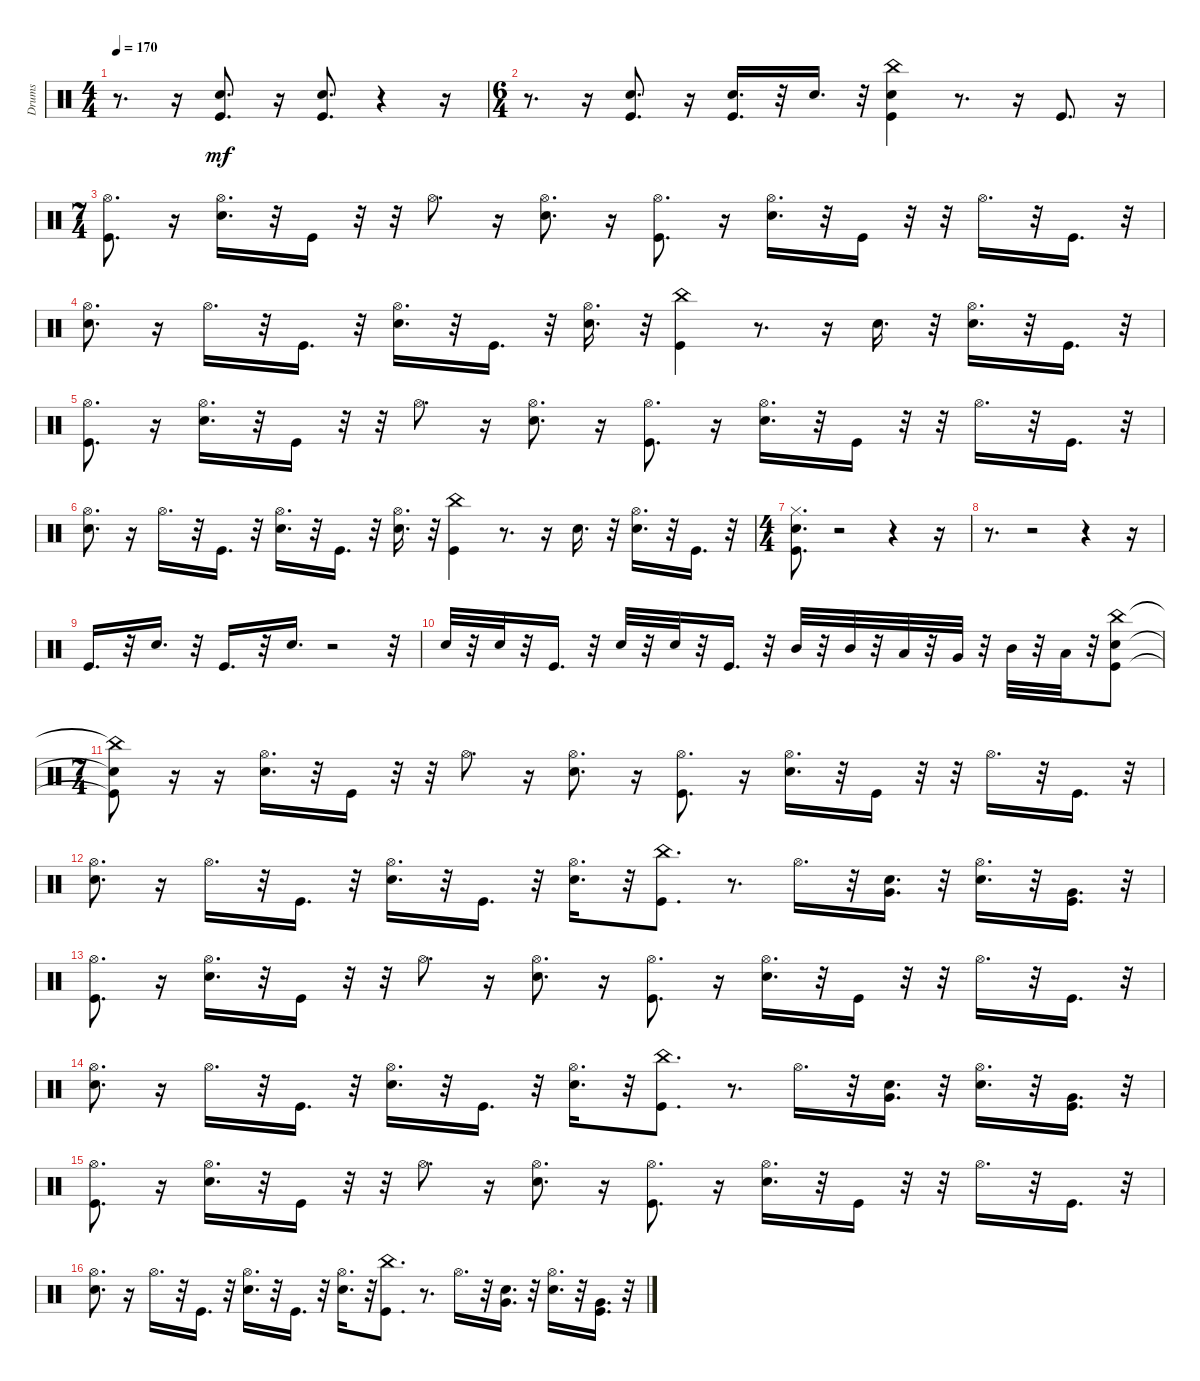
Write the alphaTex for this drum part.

\track ("Drums" "Drums") {instrument percussion}
\staff {score}
\articulation defaults
\ts (4 4)
\tempo 170
\clef neutral
\ks c
r.8{d dy mf} r.16 ("Kick (hit)" "Snare (hit) 2").8{d} r.16 ("Kick (hit)" "Snare (hit) 2").8{d} r.4 r.16 |
\ts (6 4)
r.8{d} r.16 ("Kick (hit)" "Snare (hit) 2").8{d} r.16 ("Kick (hit)" "Snare (hit) 2").16{d} r.32 "Snare (hit) 2".16{d} r.32 ("Kick (hit)" "Snare (hit) 2" "China (hit)").4 r.8{d} r.16 "Kick (hit)".8{d} r.16 |
\ts (7 4)
("Kick (hit)" "Hi-Hat (open)").8{d} r.16 ("Snare (hit) 2" "Hi-Hat (open)").16{d} r.32 "Kick (hit)".16 r.32 r.32 "Hi-Hat (open)".8{d} r.16 ("Snare (hit) 2" "Hi-Hat (open)").8{d} r.16 ("Kick (hit)" "Hi-Hat (open)").8{d} r.16 ("Snare (hit) 2" "Hi-Hat (open)").16{d} r.32 "Kick (hit)".16 r.32 r.32 "Hi-Hat (open)".16{d} r.32 "Kick (hit)".16{d} r.32 |
("Snare (hit) 2" "Hi-Hat (open)").8{d} r.16 "Hi-Hat (open)".16{d} r.32 "Kick (hit)".16{d} r.32 ("Snare (hit) 2" "Hi-Hat (open)").16{d} r.32 "Kick (hit)".16{d} r.32 ("Snare (hit) 2" "Hi-Hat (open)").16{d} r.32 ("Kick (hit)" "China (hit)").4 r.8{d} r.16 "Snare (hit) 2".16{d} r.32 ("Snare (hit) 2" "Hi-Hat (open)").16{d} r.32 "Kick (hit)".16{d} r.32 |
("Kick (hit)" "Hi-Hat (open)").8{d} r.16 ("Snare (hit) 2" "Hi-Hat (open)").16{d} r.32 "Kick (hit)".16 r.32 r.32 "Hi-Hat (open)".8{d} r.16 ("Snare (hit) 2" "Hi-Hat (open)").8{d} r.16 ("Kick (hit)" "Hi-Hat (open)").8{d} r.16 ("Snare (hit) 2" "Hi-Hat (open)").16{d} r.32 "Kick (hit)".16 r.32 r.32 "Hi-Hat (open)".16{d} r.32 "Kick (hit)".16{d} r.32 |
("Snare (hit) 2" "Hi-Hat (open)").8{d} r.16 "Hi-Hat (open)".16{d} r.32 "Kick (hit)".16{d} r.32 ("Snare (hit) 2" "Hi-Hat (open)").16{d} r.32 "Kick (hit)".16{d} r.32 ("Snare (hit) 2" "Hi-Hat (open)").16{d} r.32 ("Kick (hit)" "China (hit)").4 r.8{d} r.16 "Snare (hit) 2".16{d} r.32 ("Snare (hit) 2" "Hi-Hat (open)").16{d} r.32 "Kick (hit)".16{d} r.32 |
\ts (4 4)
("Kick (hit)" "Snare (hit) 2" "Hi-Hat (closed)").8{d} r.2 r.4 r.16 |
r.8{d} r.2 r.4 r.16 |
"Kick (hit)".16{d} r.32 "Snare (hit) 2".16{d} r.32 "Kick (hit)".16{d} r.32 "Snare (hit) 2".16{d} r.2 r.32 |
"Snare (hit) 2".32 r.32 "Snare (hit) 2".32 r.32 "Kick (hit)".16{d} r.32 "Snare (hit) 2".32 r.32 "Snare (hit) 2".32 r.32 "Kick (hit)".16{d} r.32 "Mid Tom (hit)".32 r.32 "Mid Tom (hit)".32 r.32 "Low Tom (hit)".32 r.32 "Very Low Tom (hit)".32 r.32 "Mid Tom (hit)".32 r.32 "Low Tom (hit)".32 r.32 ("Kick (hit)" "Snare (hit) 2" "China (hit)").8 |
\ts (7 4)
("Kick (hit)"{t} "Snare (hit) 2"{t} "China (hit)"{t}).8 r.16 r.16 ("Snare (hit) 2" "Hi-Hat (open)").16{d} r.32 "Kick (hit)".16 r.32 r.32 "Hi-Hat (open)".8{d} r.16 ("Snare (hit) 2" "Hi-Hat (open)").8{d} r.16 ("Kick (hit)" "Hi-Hat (open)").8{d} r.16 ("Snare (hit) 2" "Hi-Hat (open)").16{d} r.32 "Kick (hit)".16 r.32 r.32 "Hi-Hat (open)".16{d} r.32 "Kick (hit)".16{d} r.32 |
("Snare (hit) 2" "Hi-Hat (open)").8{d} r.16 "Hi-Hat (open)".16{d} r.32 "Kick (hit)".16{d} r.32 ("Snare (hit) 2" "Hi-Hat (open)").16{d} r.32 "Kick (hit)".16{d} r.32 ("Snare (hit) 2" "Hi-Hat (open)").16{d} r.32 ("Kick (hit)" "China (hit)").8{d} r.8{d} "Hi-Hat (open)".16{d} r.32 ("Snare (hit) 2" "Very Low Tom (hit)").16{d} r.32 ("Snare (hit) 2" "Hi-Hat (open)").16{d} r.32 ("Kick (hit)" "Very Low Tom (hit)").16{d} r.32 |
("Kick (hit)" "Hi-Hat (open)").8{d} r.16 ("Snare (hit) 2" "Hi-Hat (open)").16{d} r.32 "Kick (hit)".16 r.32 r.32 "Hi-Hat (open)".8{d} r.16 ("Snare (hit) 2" "Hi-Hat (open)").8{d} r.16 ("Kick (hit)" "Hi-Hat (open)").8{d} r.16 ("Snare (hit) 2" "Hi-Hat (open)").16{d} r.32 "Kick (hit)".16 r.32 r.32 "Hi-Hat (open)".16{d} r.32 "Kick (hit)".16{d} r.32 |
("Snare (hit) 2" "Hi-Hat (open)").8{d} r.16 "Hi-Hat (open)".16{d} r.32 "Kick (hit)".16{d} r.32 ("Snare (hit) 2" "Hi-Hat (open)").16{d} r.32 "Kick (hit)".16{d} r.32 ("Snare (hit) 2" "Hi-Hat (open)").16{d} r.32 ("Kick (hit)" "China (hit)").8{d} r.8{d} "Hi-Hat (open)".16{d} r.32 ("Snare (hit) 2" "Very Low Tom (hit)").16{d} r.32 ("Snare (hit) 2" "Hi-Hat (open)").16{d} r.32 ("Kick (hit)" "Very Low Tom (hit)").16{d} r.32 |
("Kick (hit)" "Hi-Hat (open)").8{d} r.16 ("Snare (hit) 2" "Hi-Hat (open)").16{d} r.32 "Kick (hit)".16 r.32 r.32 "Hi-Hat (open)".8{d} r.16 ("Snare (hit) 2" "Hi-Hat (open)").8{d} r.16 ("Kick (hit)" "Hi-Hat (open)").8{d} r.16 ("Snare (hit) 2" "Hi-Hat (open)").16{d} r.32 "Kick (hit)".16 r.32 r.32 "Hi-Hat (open)".16{d} r.32 "Kick (hit)".16{d} r.32 |
("Snare (hit) 2" "Hi-Hat (open)").8{d} r.16 "Hi-Hat (open)".16{d} r.32 "Kick (hit)".16{d} r.32 ("Snare (hit) 2" "Hi-Hat (open)").16{d} r.32 "Kick (hit)".16{d} r.32 ("Snare (hit) 2" "Hi-Hat (open)").16{d} r.32 ("Kick (hit)" "China (hit)").8{d} r.8{d} "Hi-Hat (open)".16{d} r.32 ("Snare (hit) 2" "Very Low Tom (hit)").16{d} r.32 ("Snare (hit) 2" "Hi-Hat (open)").16{d} r.32 ("Kick (hit)" "Very Low Tom (hit)").16{d} r.32
